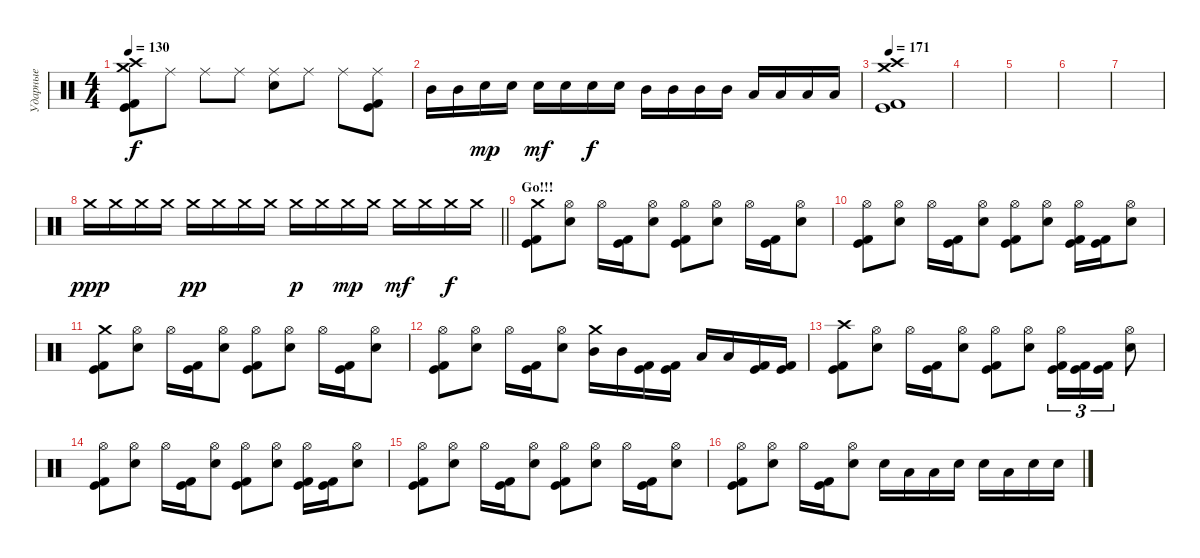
\track ("Ударные" "Ударные") {instrument percussion}
\staff {score}
\articulation defaults
\ts (4 4)
\tempo 130
\clef neutral
\ks c
("Crash high (hit)" "Crash medium (hit)" "Kick (hit)" "Kick (hit) 2").8{dy f} "Ride (middle)".8 "Ride (middle)".8 "Ride (middle)".8 ("Ride (middle)" "Electric Snare (hit)").8 "Ride (middle)".8 "Ride (middle)".8 ("Ride (middle)" "Kick (hit)" "Kick (hit) 2").8 |
"Mid Tom (hit)".16 "Mid Tom (hit)".16 "Electric Snare (hit)".16{dy mp} "Electric Snare (hit)".16 "Electric Snare (hit)".16{dy mf} "Electric Snare (hit)".16 "Electric Snare (hit)".16{dy f} "Electric Snare (hit)".16 "Mid Tom (hit)".16 "Mid Tom (hit)".16 "Mid Tom (hit)".16 "Mid Tom (hit)".16 "Low Tom (hit)".16 "Low Tom (hit)".16 "Low Tom (hit)".16 "Low Tom (hit)".16 |
\tempo 171
("Crash high (hit)" "Crash medium (hit)" "Kick (hit)" "Kick (hit) 2").1 |
|
|
|
|
\barLineRight lightlight "Crash medium (hit)".16{dy ppp} "Crash medium (hit)".16 "Crash medium (hit)".16 "Crash medium (hit)".16 "Crash medium (hit)".16{dy pp} "Crash medium (hit)".16 "Crash medium (hit)".16 "Crash medium (hit)".16 "Crash medium (hit)".16{dy p} "Crash medium (hit)".16 "Crash medium (hit)".16{dy mp} "Crash medium (hit)".16 "Crash medium (hit)".16{dy mf} "Crash medium (hit)".16 "Crash medium (hit)".16{dy f} "Crash medium (hit)".16
|
\section ("" "Go!!!")
("Crash medium (hit)" "Kick (hit)" "Kick (hit) 2").8 ("Hi-Hat (open)" "Electric Snare (hit)").8 "Hi-Hat (open)".16 ("Kick (hit)" "Kick (hit) 2").16 ("Hi-Hat (open)" "Electric Snare (hit)").8 ("Hi-Hat (open)" "Kick (hit)" "Kick (hit) 2").8 ("Hi-Hat (open)" "Electric Snare (hit)").8 "Hi-Hat (open)".16 ("Kick (hit)" "Kick (hit) 2").16 ("Hi-Hat (open)" "Electric Snare (hit)").8 |
("Hi-Hat (open)" "Kick (hit)" "Kick (hit) 2").8 ("Hi-Hat (open)" "Electric Snare (hit)").8 "Hi-Hat (open)".16 ("Kick (hit)" "Kick (hit) 2").16 ("Hi-Hat (open)" "Electric Snare (hit)").8 ("Hi-Hat (open)" "Kick (hit)" "Kick (hit) 2").8 ("Hi-Hat (open)" "Electric Snare (hit)").8 ("Hi-Hat (open)" "Kick (hit)" "Kick (hit) 2").16 ("Kick (hit)" "Kick (hit) 2").16 ("Hi-Hat (open)" "Electric Snare (hit)").8 |
("Crash medium (hit)" "Kick (hit)" "Kick (hit) 2").8 ("Hi-Hat (open)" "Electric Snare (hit)").8 "Hi-Hat (open)".16 ("Kick (hit)" "Kick (hit) 2").16 ("Hi-Hat (open)" "Electric Snare (hit)").8 ("Hi-Hat (open)" "Kick (hit)" "Kick (hit) 2").8 ("Hi-Hat (open)" "Electric Snare (hit)").8 "Hi-Hat (open)".16 ("Kick (hit)" "Kick (hit) 2").16 ("Hi-Hat (open)" "Electric Snare (hit)").8 |
("Hi-Hat (open)" "Kick (hit)" "Kick (hit) 2").8 ("Hi-Hat (open)" "Electric Snare (hit)").8 "Hi-Hat (open)".16 ("Kick (hit)" "Kick (hit) 2").16 ("Hi-Hat (open)" "Electric Snare (hit)").8 ("Crash medium (hit)" "Mid Tom (hit)").16 "Mid Tom (hit)".16 ("Kick (hit)" "Kick (hit) 2").16 ("Kick (hit)" "Kick (hit) 2").16 "Low Tom (hit)".16 "Low Tom (hit)".16 ("Kick (hit)" "Kick (hit) 2").16 ("Kick (hit)" "Kick (hit) 2").16 |
("Crash high (hit)" "Kick (hit)" "Kick (hit) 2").8 ("Hi-Hat (open)" "Electric Snare (hit)").8 "Hi-Hat (open)".16 ("Kick (hit)" "Kick (hit) 2").16 ("Hi-Hat (open)" "Electric Snare (hit)").8 ("Hi-Hat (open)" "Kick (hit)" "Kick (hit) 2").8 ("Hi-Hat (open)" "Electric Snare (hit)").8 ("Hi-Hat (open)" "Kick (hit)" "Kick (hit) 2").16{tu (3 2)} ("Kick (hit)" "Kick (hit) 2").16{tu (3 2)} ("Kick (hit)" "Kick (hit) 2").16{tu (3 2)} ("Hi-Hat (open)" "Electric Snare (hit)").8 |
("Hi-Hat (open)" "Kick (hit)" "Kick (hit) 2").8 ("Hi-Hat (open)" "Electric Snare (hit)").8 "Hi-Hat (open)".16 ("Kick (hit)" "Kick (hit) 2").16 ("Hi-Hat (open)" "Electric Snare (hit)").8 ("Hi-Hat (open)" "Kick (hit)" "Kick (hit) 2").8 ("Hi-Hat (open)" "Electric Snare (hit)").8 ("Hi-Hat (open)" "Kick (hit)" "Kick (hit) 2").16 ("Kick (hit)" "Kick (hit) 2").16 ("Hi-Hat (open)" "Electric Snare (hit)").8 |
("Hi-Hat (open)" "Kick (hit)" "Kick (hit) 2").8 ("Hi-Hat (open)" "Electric Snare (hit)").8 "Hi-Hat (open)".16 ("Kick (hit)" "Kick (hit) 2").16 ("Hi-Hat (open)" "Electric Snare (hit)").8 ("Hi-Hat (open)" "Kick (hit)" "Kick (hit) 2").8 ("Hi-Hat (open)" "Electric Snare (hit)").8 "Hi-Hat (open)".16 ("Kick (hit)" "Kick (hit) 2").16 ("Hi-Hat (open)" "Electric Snare (hit)").8 |
("Hi-Hat (open)" "Kick (hit)" "Kick (hit) 2").8 ("Hi-Hat (open)" "Electric Snare (hit)").8 "Hi-Hat (open)".16 ("Kick (hit)" "Kick (hit) 2").16 ("Hi-Hat (open)" "Electric Snare (hit)").8 "Electric Snare (hit)".16 "Low Tom (hit)".16 "Low Tom (hit)".16 "Electric Snare (hit)".16 "Electric Snare (hit)".16 "Low Tom (hit)".16 "Electric Snare (hit)".16 "Electric Snare (hit)".16
